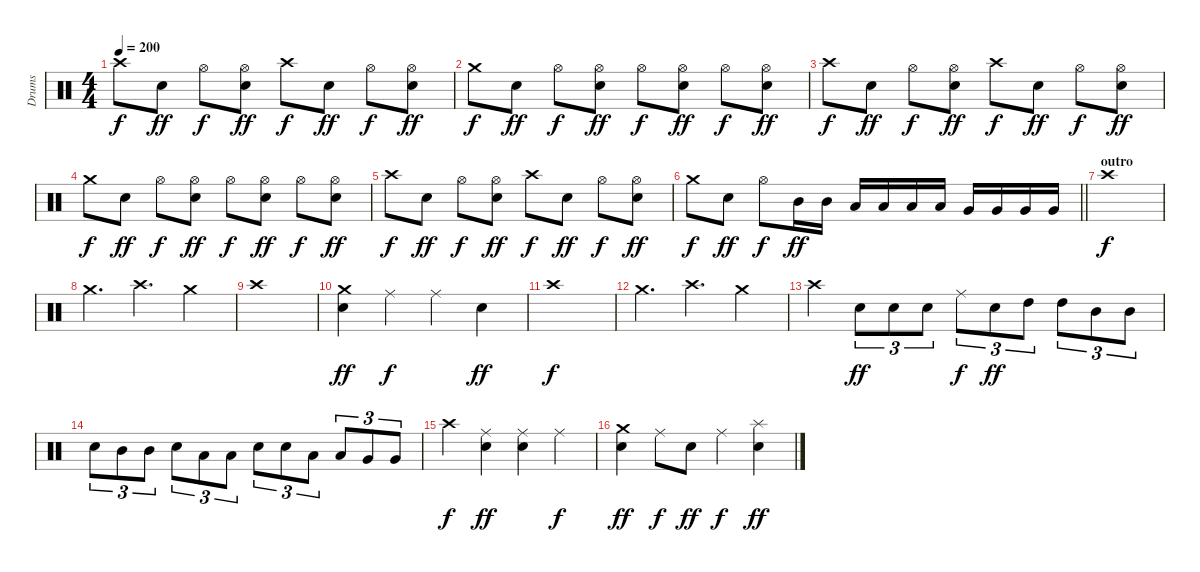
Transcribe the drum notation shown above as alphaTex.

\track ("Drums" "Drums") {instrument percussion}
\staff {score}
\articulation defaults
\ts (4 4)
\tempo 200
\clef neutral
\ks c "Crash high (hit)".8{dy f} "Snare (hit) 2".8{dy ff} "Hi-Hat (open)".8{dy f}
("Hi-Hat (open)" "Snare (hit) 2").8{dy ff} "Crash high (hit)".8{dy f} "Snare (hit) 2".8{dy ff} "Hi-Hat (open)".8{dy f} ("Hi-Hat (open)" "Snare (hit) 2").8{dy ff} |
"Crash medium (hit)".8{dy f} "Snare (hit) 2".8{dy ff} "Hi-Hat (open)".8{dy f} ("Hi-Hat (open)" "Snare (hit) 2").8{dy ff} "Hi-Hat (open)".8{dy f} ("Hi-Hat (open)" "Snare (hit) 2").8{dy ff} "Hi-Hat (open)".8{dy f} ("Hi-Hat (open)" "Snare (hit) 2").8{dy ff} |
"Crash high (hit)".8{dy f} "Snare (hit) 2".8{dy ff} "Hi-Hat (open)".8{dy f} ("Hi-Hat (open)" "Snare (hit) 2").8{dy ff} "Crash high (hit)".8{dy f} "Snare (hit) 2".8{dy ff} "Hi-Hat (open)".8{dy f} ("Hi-Hat (open)" "Snare (hit) 2").8{dy ff} |
"Crash medium (hit)".8{dy f} "Snare (hit) 2".8{dy ff} "Hi-Hat (open)".8{dy f} ("Hi-Hat (open)" "Snare (hit) 2").8{dy ff} "Hi-Hat (open)".8{dy f} ("Hi-Hat (open)" "Snare (hit) 2").8{dy ff} "Hi-Hat (open)".8{dy f} ("Hi-Hat (open)" "Snare (hit) 2").8{dy ff} |
"Crash high (hit)".8{dy f} "Snare (hit) 2".8{dy ff} "Hi-Hat (open)".8{dy f} ("Hi-Hat (open)" "Snare (hit) 2").8{dy ff} "Crash high (hit)".8{dy f} "Snare (hit) 2".8{dy ff} "Hi-Hat (open)".8{dy f} ("Hi-Hat (open)" "Snare (hit) 2").8{dy ff} |
\barLineRight lightlight "Crash medium (hit)".8{dy f} "Snare (hit) 2".8{dy ff} "Hi-Hat (open)".8{dy f} "Mid Tom (hit)".16{dy ff} "Mid Tom (hit)".16 "Low Tom (hit)".16 "Low Tom (hit)".16 "Low Tom (hit)".16 "Low Tom (hit)".16 "Very Low Tom (hit)".16 "Very Low Tom (hit)".16 "Very Low Tom (hit)".16 "Very Low Tom (hit)".16
|
\section ("" "outro")
"Crash high (hit)".1{dy f} |
"Crash medium (hit)".4{d} "Crash high (hit)".4{d} "Crash medium (hit)".4 |
"Crash high (hit)".1 |
("Crash medium (hit)" "Snare (hit) 2").4{dy ff} "Ride (middle)".4{dy f} "Ride (middle)".4 "Snare (hit) 2".4{dy ff} |
"Crash high (hit)".1{dy f} |
"Crash medium (hit)".4{d} "Crash high (hit)".4{d} "Crash medium (hit)".4 |
"Crash high (hit)".4 "Snare (hit) 2".8{tu (3 2) dy ff} "Snare (hit) 2".8{tu (3 2)} "Snare (hit) 2".8{tu (3 2)} "Ride (middle)".8{tu (3 2) dy f} "Snare (hit) 2".8{tu (3 2) dy ff} "High Tom (hit)".8{tu (3 2)} "High Tom (hit)".8{tu (3 2)} "Mid Tom (hit)".8{tu (3 2)} "Mid Tom (hit)".8{tu (3 2)} |
"Snare (hit) 2".8{tu (3 2)} "Mid Tom (hit)".8{tu (3 2)} "Mid Tom (hit)".8{tu (3 2)} "Snare (hit) 2".8{tu (3 2)} "Low Tom (hit)".8{tu (3 2)} "Low Tom (hit)".8{tu (3 2)} "Snare (hit) 2".8{tu (3 2)} "Snare (hit) 2".8{tu (3 2)} "Low Tom (hit)".8{tu (3 2)} "Low Tom (hit)".8{tu (3 2)} "Very Low Tom (hit)".8{tu (3 2)} "Very Low Tom (hit)".8{tu (3 2)} |
"Crash high (hit)".4{dy f} ("Ride (middle)" "Snare (hit) 2").4{dy ff} ("Ride (middle)" "Snare (hit) 2").4 "Ride (middle)".4{dy f} |
("Crash medium (hit)" "Snare (hit) 2").4{dy ff} "Ride (middle)".8{dy f} "Snare (hit) 2".8{dy ff} "Ride (middle)".4{dy f} ("Splash (hit)" "Snare (hit) 2").4{dy ff}
